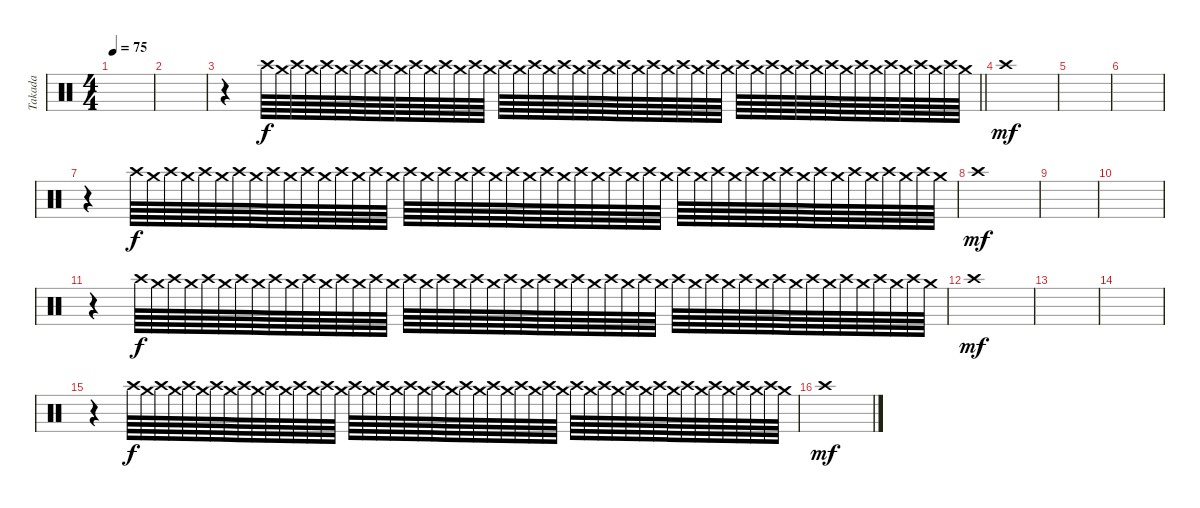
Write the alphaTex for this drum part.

\track ("Takada" "Takada") {instrument percussion}
\staff {score}
\articulation defaults
\ts (4 4)
\tempo 75
\clef neutral
\ks c
|
|
\barLineRight lightlight
r.4{volume 0} "Crash high (hit)".64{volume 9} "Crash medium (hit)".64 "Crash high (hit)".64 "Crash medium (hit)".64 "Crash high (hit)".64 "Crash medium (hit)".64 "Crash high (hit)".64 "Crash medium (hit)".64 "Crash high (hit)".64 "Crash medium (hit)".64 "Crash high (hit)".64 "Crash medium (hit)".64 "Crash high (hit)".64 "Crash medium (hit)".64 "Crash high (hit)".64 "Crash medium (hit)".64 "Crash high (hit)".64 "Crash medium (hit)".64 "Crash high (hit)".64 "Crash medium (hit)".64 "Crash high (hit)".64 "Crash medium (hit)".64 "Crash high (hit)".64 "Crash medium (hit)".64 "Crash high (hit)".64 "Crash medium (hit)".64 "Crash high (hit)".64 "Crash medium (hit)".64 "Crash high (hit)".64 "Crash medium (hit)".64 "Crash high (hit)".64 "Crash medium (hit)".64 "Crash high (hit)".64 "Crash medium (hit)".64 "Crash high (hit)".64 "Crash medium (hit)".64 "Crash high (hit)".64 "Crash medium (hit)".64 "Crash high (hit)".64 "Crash medium (hit)".64 "Crash high (hit)".64 "Crash medium (hit)".64 "Crash high (hit)".64 "Crash medium (hit)".64 "Crash high (hit)".64 "Crash medium (hit)".64 "Crash high (hit)".64 "Crash medium (hit)".64 |
\section ("" "")
"Crash high (hit)".1{dy mf} |
|
|
r.4{volume 0} "Crash high (hit)".64{dy f volume 9} "Crash medium (hit)".64 "Crash high (hit)".64 "Crash medium (hit)".64 "Crash high (hit)".64 "Crash medium (hit)".64 "Crash high (hit)".64 "Crash medium (hit)".64 "Crash high (hit)".64 "Crash medium (hit)".64 "Crash high (hit)".64 "Crash medium (hit)".64 "Crash high (hit)".64 "Crash medium (hit)".64 "Crash high (hit)".64 "Crash medium (hit)".64 "Crash high (hit)".64 "Crash medium (hit)".64 "Crash high (hit)".64 "Crash medium (hit)".64 "Crash high (hit)".64 "Crash medium (hit)".64 "Crash high (hit)".64 "Crash medium (hit)".64 "Crash high (hit)".64 "Crash medium (hit)".64 "Crash high (hit)".64 "Crash medium (hit)".64 "Crash high (hit)".64 "Crash medium (hit)".64 "Crash high (hit)".64 "Crash medium (hit)".64 "Crash high (hit)".64 "Crash medium (hit)".64 "Crash high (hit)".64 "Crash medium (hit)".64 "Crash high (hit)".64 "Crash medium (hit)".64 "Crash high (hit)".64 "Crash medium (hit)".64 "Crash high (hit)".64 "Crash medium (hit)".64 "Crash high (hit)".64 "Crash medium (hit)".64 "Crash high (hit)".64 "Crash medium (hit)".64 "Crash high (hit)".64 "Crash medium (hit)".64 |
"Crash high (hit)".1{dy mf} |
|
|
r.4{volume 0} "Crash high (hit)".64{dy f volume 9} "Crash medium (hit)".64 "Crash high (hit)".64 "Crash medium (hit)".64 "Crash high (hit)".64 "Crash medium (hit)".64 "Crash high (hit)".64 "Crash medium (hit)".64 "Crash high (hit)".64 "Crash medium (hit)".64 "Crash high (hit)".64 "Crash medium (hit)".64 "Crash high (hit)".64 "Crash medium (hit)".64 "Crash high (hit)".64 "Crash medium (hit)".64 "Crash high (hit)".64 "Crash medium (hit)".64 "Crash high (hit)".64 "Crash medium (hit)".64 "Crash high (hit)".64 "Crash medium (hit)".64 "Crash high (hit)".64 "Crash medium (hit)".64 "Crash high (hit)".64 "Crash medium (hit)".64 "Crash high (hit)".64 "Crash medium (hit)".64 "Crash high (hit)".64 "Crash medium (hit)".64 "Crash high (hit)".64 "Crash medium (hit)".64 "Crash high (hit)".64 "Crash medium (hit)".64 "Crash high (hit)".64 "Crash medium (hit)".64 "Crash high (hit)".64 "Crash medium (hit)".64 "Crash high (hit)".64 "Crash medium (hit)".64 "Crash high (hit)".64 "Crash medium (hit)".64 "Crash high (hit)".64 "Crash medium (hit)".64 "Crash high (hit)".64 "Crash medium (hit)".64 "Crash high (hit)".64 "Crash medium (hit)".64 |
"Crash high (hit)".1{dy mf} |
|
|
r.4{volume 0} "Crash high (hit)".64{dy f volume 9} "Crash medium (hit)".64 "Crash high (hit)".64 "Crash medium (hit)".64 "Crash high (hit)".64 "Crash medium (hit)".64 "Crash high (hit)".64 "Crash medium (hit)".64 "Crash high (hit)".64 "Crash medium (hit)".64 "Crash high (hit)".64 "Crash medium (hit)".64 "Crash high (hit)".64 "Crash medium (hit)".64 "Crash high (hit)".64 "Crash medium (hit)".64 "Crash high (hit)".64 "Crash medium (hit)".64 "Crash high (hit)".64 "Crash medium (hit)".64 "Crash high (hit)".64 "Crash medium (hit)".64 "Crash high (hit)".64 "Crash medium (hit)".64 "Crash high (hit)".64 "Crash medium (hit)".64 "Crash high (hit)".64 "Crash medium (hit)".64 "Crash high (hit)".64 "Crash medium (hit)".64 "Crash high (hit)".64 "Crash medium (hit)".64 "Crash high (hit)".64 "Crash medium (hit)".64 "Crash high (hit)".64 "Crash medium (hit)".64 "Crash high (hit)".64 "Crash medium (hit)".64 "Crash high (hit)".64 "Crash medium (hit)".64 "Crash high (hit)".64 "Crash medium (hit)".64 "Crash high (hit)".64 "Crash medium (hit)".64 "Crash high (hit)".64 "Crash medium (hit)".64 "Crash high (hit)".64 "Crash medium (hit)".64 |
"Crash high (hit)".1{dy mf}
